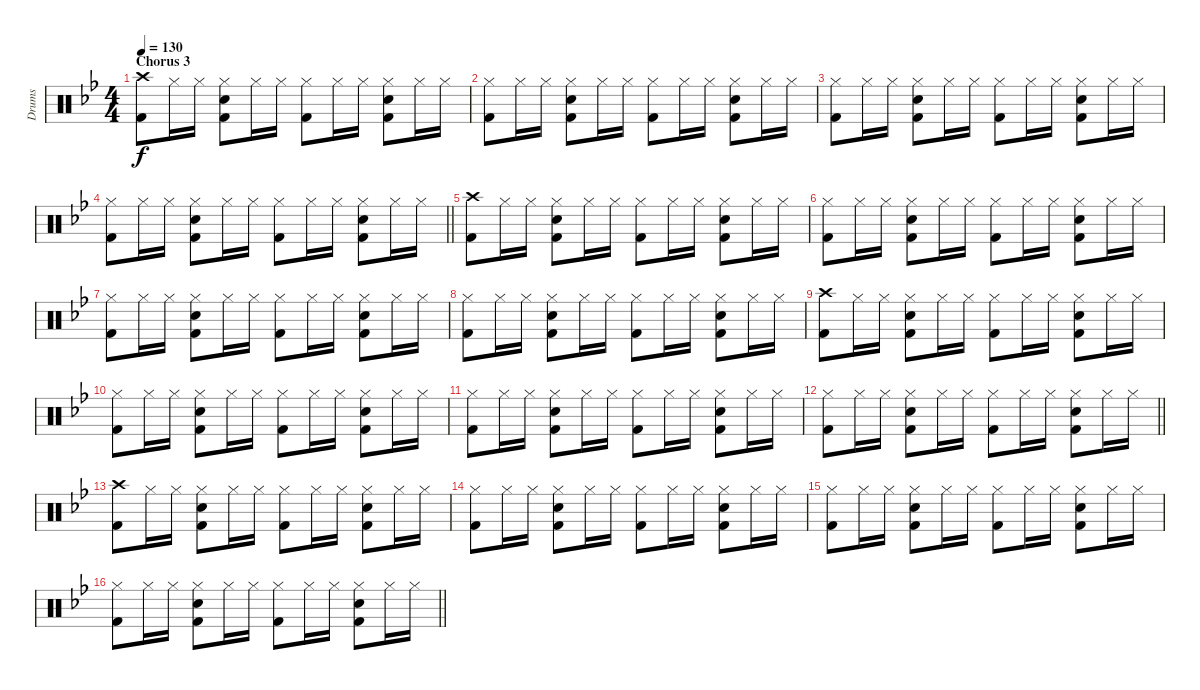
\track ("Drums" "Drums") {instrument percussion}
\staff {score}
\articulation defaults
\ts (4 4)
\section ("" "Chorus 3")
\tempo 130
\clef neutral
\ks bb
("Crash high (hit)" "Kick (hit) 2").8{dy f} "Hi-Hat (closed)".16 "Hi-Hat (closed)".16 ("Hi-Hat (closed)" "Snare (hit) 2" "Kick (hit) 2").8 "Hi-Hat (closed)".16 "Hi-Hat (closed)".16 ("Hi-Hat (closed)" "Kick (hit) 2").8 "Hi-Hat (closed)".16 "Hi-Hat (closed)".16 ("Hi-Hat (closed)" "Snare (hit) 2" "Kick (hit) 2").8 "Hi-Hat (closed)".16 "Hi-Hat (closed)".16 |
("Hi-Hat (closed)" "Kick (hit) 2").8 "Hi-Hat (closed)".16 "Hi-Hat (closed)".16 ("Hi-Hat (closed)" "Snare (hit) 2" "Kick (hit) 2").8 "Hi-Hat (closed)".16 "Hi-Hat (closed)".16 ("Hi-Hat (closed)" "Kick (hit) 2").8 "Hi-Hat (closed)".16 "Hi-Hat (closed)".16 ("Hi-Hat (closed)" "Snare (hit) 2" "Kick (hit) 2").8 "Hi-Hat (closed)".16 "Hi-Hat (closed)".16 |
("Hi-Hat (closed)" "Kick (hit) 2").8 "Hi-Hat (closed)".16 "Hi-Hat (closed)".16 ("Hi-Hat (closed)" "Snare (hit) 2" "Kick (hit) 2").8 "Hi-Hat (closed)".16 "Hi-Hat (closed)".16 ("Hi-Hat (closed)" "Kick (hit) 2").8 "Hi-Hat (closed)".16 "Hi-Hat (closed)".16 ("Hi-Hat (closed)" "Snare (hit) 2" "Kick (hit) 2").8 "Hi-Hat (closed)".16 "Hi-Hat (closed)".16 |
\barLineRight lightlight
("Hi-Hat (closed)" "Kick (hit) 2").8 "Hi-Hat (closed)".16 "Hi-Hat (closed)".16 ("Hi-Hat (closed)" "Snare (hit) 2" "Kick (hit) 2").8 "Hi-Hat (closed)".16 "Hi-Hat (closed)".16 ("Hi-Hat (closed)" "Kick (hit) 2").8 "Hi-Hat (closed)".16 "Hi-Hat (closed)".16 ("Hi-Hat (closed)" "Snare (hit) 2" "Kick (hit) 2").8 "Hi-Hat (closed)".16 "Hi-Hat (closed)".16 |
("Crash high (hit)" "Kick (hit) 2").8 "Hi-Hat (closed)".16 "Hi-Hat (closed)".16 ("Hi-Hat (closed)" "Snare (hit) 2" "Kick (hit) 2").8 "Hi-Hat (closed)".16 "Hi-Hat (closed)".16 ("Hi-Hat (closed)" "Kick (hit) 2").8 "Hi-Hat (closed)".16 "Hi-Hat (closed)".16 ("Hi-Hat (closed)" "Snare (hit) 2" "Kick (hit) 2").8 "Hi-Hat (closed)".16 "Hi-Hat (closed)".16 |
("Hi-Hat (closed)" "Kick (hit) 2").8 "Hi-Hat (closed)".16 "Hi-Hat (closed)".16 ("Hi-Hat (closed)" "Snare (hit) 2" "Kick (hit) 2").8 "Hi-Hat (closed)".16 "Hi-Hat (closed)".16 ("Hi-Hat (closed)" "Kick (hit) 2").8 "Hi-Hat (closed)".16 "Hi-Hat (closed)".16 ("Hi-Hat (closed)" "Snare (hit) 2" "Kick (hit) 2").8 "Hi-Hat (closed)".16 "Hi-Hat (closed)".16 |
("Hi-Hat (closed)" "Kick (hit) 2").8 "Hi-Hat (closed)".16 "Hi-Hat (closed)".16 ("Hi-Hat (closed)" "Snare (hit) 2" "Kick (hit) 2").8 "Hi-Hat (closed)".16 "Hi-Hat (closed)".16 ("Hi-Hat (closed)" "Kick (hit) 2").8 "Hi-Hat (closed)".16 "Hi-Hat (closed)".16 ("Hi-Hat (closed)" "Snare (hit) 2" "Kick (hit) 2").8 "Hi-Hat (closed)".16 "Hi-Hat (closed)".16 |
("Hi-Hat (closed)" "Kick (hit) 2").8 "Hi-Hat (closed)".16 "Hi-Hat (closed)".16 ("Hi-Hat (closed)" "Snare (hit) 2" "Kick (hit) 2").8 "Hi-Hat (closed)".16 "Hi-Hat (closed)".16 ("Hi-Hat (closed)" "Kick (hit) 2").8 "Hi-Hat (closed)".16 "Hi-Hat (closed)".16 ("Hi-Hat (closed)" "Snare (hit) 2" "Kick (hit) 2").8 "Hi-Hat (closed)".16 "Hi-Hat (closed)".16 |
("Crash high (hit)" "Kick (hit) 2").8 "Hi-Hat (closed)".16 "Hi-Hat (closed)".16 ("Hi-Hat (closed)" "Snare (hit) 2" "Kick (hit) 2").8 "Hi-Hat (closed)".16 "Hi-Hat (closed)".16 ("Hi-Hat (closed)" "Kick (hit) 2").8 "Hi-Hat (closed)".16 "Hi-Hat (closed)".16 ("Hi-Hat (closed)" "Snare (hit) 2" "Kick (hit) 2").8 "Hi-Hat (closed)".16 "Hi-Hat (closed)".16 |
("Hi-Hat (closed)" "Kick (hit) 2").8 "Hi-Hat (closed)".16 "Hi-Hat (closed)".16 ("Hi-Hat (closed)" "Snare (hit) 2" "Kick (hit) 2").8 "Hi-Hat (closed)".16 "Hi-Hat (closed)".16 ("Hi-Hat (closed)" "Kick (hit) 2").8 "Hi-Hat (closed)".16 "Hi-Hat (closed)".16 ("Hi-Hat (closed)" "Snare (hit) 2" "Kick (hit) 2").8 "Hi-Hat (closed)".16 "Hi-Hat (closed)".16 |
("Hi-Hat (closed)" "Kick (hit) 2").8 "Hi-Hat (closed)".16 "Hi-Hat (closed)".16 ("Hi-Hat (closed)" "Snare (hit) 2" "Kick (hit) 2").8 "Hi-Hat (closed)".16 "Hi-Hat (closed)".16 ("Hi-Hat (closed)" "Kick (hit) 2").8 "Hi-Hat (closed)".16 "Hi-Hat (closed)".16 ("Hi-Hat (closed)" "Snare (hit) 2" "Kick (hit) 2").8 "Hi-Hat (closed)".16 "Hi-Hat (closed)".16 |
\barLineRight lightlight
("Hi-Hat (closed)" "Kick (hit) 2").8 "Hi-Hat (closed)".16 "Hi-Hat (closed)".16 ("Hi-Hat (closed)" "Snare (hit) 2" "Kick (hit) 2").8 "Hi-Hat (closed)".16 "Hi-Hat (closed)".16 ("Hi-Hat (closed)" "Kick (hit) 2").8 "Hi-Hat (closed)".16 "Hi-Hat (closed)".16 ("Hi-Hat (closed)" "Snare (hit) 2" "Kick (hit) 2").8 "Hi-Hat (closed)".16 "Hi-Hat (closed)".16 |
("Crash high (hit)" "Kick (hit) 2").8 "Hi-Hat (closed)".16 "Hi-Hat (closed)".16 ("Hi-Hat (closed)" "Snare (hit) 2" "Kick (hit) 2").8 "Hi-Hat (closed)".16 "Hi-Hat (closed)".16 ("Hi-Hat (closed)" "Kick (hit) 2").8 "Hi-Hat (closed)".16 "Hi-Hat (closed)".16 ("Hi-Hat (closed)" "Snare (hit) 2" "Kick (hit) 2").8 "Hi-Hat (closed)".16 "Hi-Hat (closed)".16 |
("Hi-Hat (closed)" "Kick (hit) 2").8 "Hi-Hat (closed)".16 "Hi-Hat (closed)".16 ("Hi-Hat (closed)" "Snare (hit) 2" "Kick (hit) 2").8 "Hi-Hat (closed)".16 "Hi-Hat (closed)".16 ("Hi-Hat (closed)" "Kick (hit) 2").8 "Hi-Hat (closed)".16 "Hi-Hat (closed)".16 ("Hi-Hat (closed)" "Snare (hit) 2" "Kick (hit) 2").8 "Hi-Hat (closed)".16 "Hi-Hat (closed)".16 |
("Hi-Hat (closed)" "Kick (hit) 2").8 "Hi-Hat (closed)".16 "Hi-Hat (closed)".16 ("Hi-Hat (closed)" "Snare (hit) 2" "Kick (hit) 2").8 "Hi-Hat (closed)".16 "Hi-Hat (closed)".16 ("Hi-Hat (closed)" "Kick (hit) 2").8 "Hi-Hat (closed)".16 "Hi-Hat (closed)".16 ("Hi-Hat (closed)" "Snare (hit) 2" "Kick (hit) 2").8 "Hi-Hat (closed)".16 "Hi-Hat (closed)".16 |
\barLineRight lightlight
("Hi-Hat (closed)" "Kick (hit) 2").8 "Hi-Hat (closed)".16 "Hi-Hat (closed)".16 ("Hi-Hat (closed)" "Snare (hit) 2" "Kick (hit) 2").8 "Hi-Hat (closed)".16 "Hi-Hat (closed)".16 ("Hi-Hat (closed)" "Kick (hit) 2").8 "Hi-Hat (closed)".16 "Hi-Hat (closed)".16 ("Hi-Hat (closed)" "Snare (hit) 2" "Kick (hit) 2").8 "Hi-Hat (closed)".16 "Hi-Hat (closed)".16
